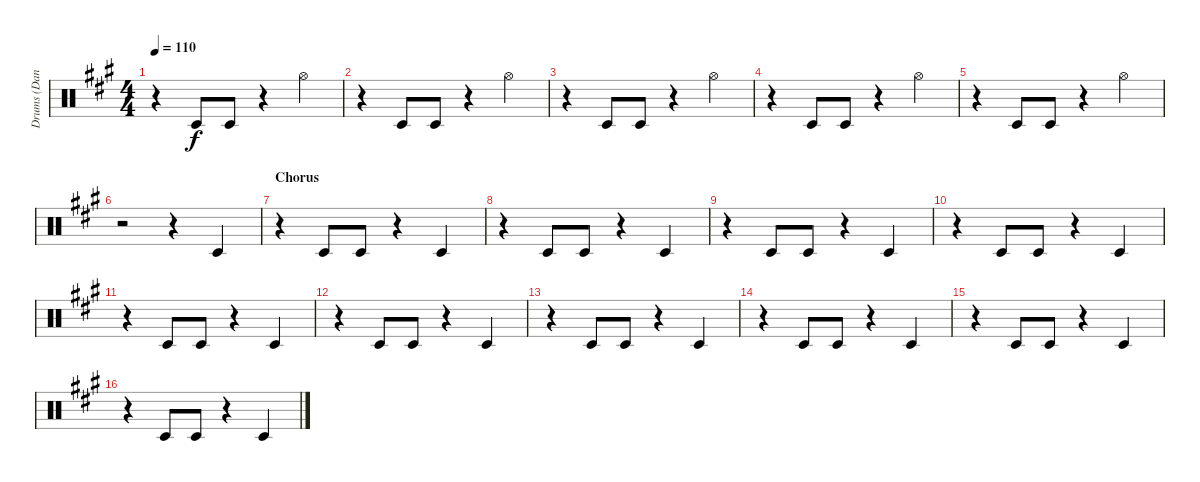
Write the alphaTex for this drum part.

\track ("Drums (Dan Rieser)" "Drums (Dan") {instrument percussion}
\staff {score}
\articulation defaults
\ts (4 4)
\tempo 110
\clef neutral
\ks a
r.4{dy f} "Timbale low (hit)".8 "Timbale low (hit)".8 r.4 "Hi-Hat (open)".4 |
r.4 "Timbale low (hit)".8 "Timbale low (hit)".8 r.4 "Hi-Hat (open)".4 |
r.4 "Timbale low (hit)".8 "Timbale low (hit)".8 r.4 "Hi-Hat (open)".4 |
r.4 "Timbale low (hit)".8 "Timbale low (hit)".8 r.4 "Hi-Hat (open)".4 |
r.4 "Timbale low (hit)".8 "Timbale low (hit)".8 r.4 "Hi-Hat (open)".4 |
r.2 r.4 "Timbale low (hit)".4 |
\section ("" "Chorus")
r.4 "Timbale low (hit)".8 "Timbale low (hit)".8 r.4 "Timbale low (hit)".4 |
r.4 "Timbale low (hit)".8 "Timbale low (hit)".8 r.4 "Timbale low (hit)".4 |
r.4 "Timbale low (hit)".8 "Timbale low (hit)".8 r.4 "Timbale low (hit)".4 |
r.4 "Timbale low (hit)".8 "Timbale low (hit)".8 r.4 "Timbale low (hit)".4 |
r.4 "Timbale low (hit)".8 "Timbale low (hit)".8 r.4 "Timbale low (hit)".4 |
r.4 "Timbale low (hit)".8 "Timbale low (hit)".8 r.4 "Timbale low (hit)".4 |
r.4 "Timbale low (hit)".8 "Timbale low (hit)".8 r.4 "Timbale low (hit)".4 |
r.4 "Timbale low (hit)".8 "Timbale low (hit)".8 r.4 "Timbale low (hit)".4 |
r.4 "Timbale low (hit)".8 "Timbale low (hit)".8 r.4 "Timbale low (hit)".4 |
r.4 "Timbale low (hit)".8 "Timbale low (hit)".8 r.4 "Timbale low (hit)".4
